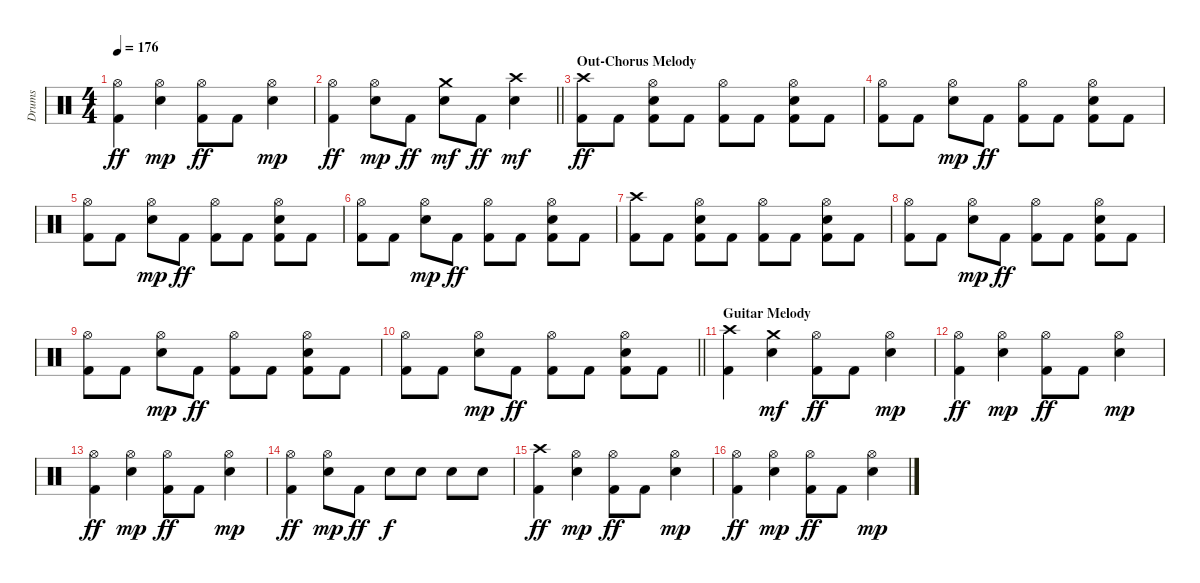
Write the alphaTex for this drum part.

\track ("Drums" "Drums") {instrument percussion}
\staff {score}
\articulation defaults
\ts (4 4)
\tempo 176
\clef neutral
\ks c
("Hi-Hat (open)" "Kick (hit) 2").4{dy ff} ("Hi-Hat (open)" "Electric Snare (hit)").4{dy mp} ("Hi-Hat (open)" "Kick (hit) 2").8{dy ff} "Kick (hit) 2".8 ("Hi-Hat (open)" "Electric Snare (hit)").4{dy mp} |
\barLineRight lightlight
("Hi-Hat (open)" "Kick (hit) 2").4{dy ff} ("Hi-Hat (open)" "Electric Snare (hit)").8{dy mp} "Kick (hit) 2".8{dy ff} ("Crash medium (hit)" "Electric Snare (hit)").8{dy mf} "Kick (hit) 2".8{dy ff} ("Crash high (hit)" "Electric Snare (hit)").4{dy mf} |
\section ("" "Out-Chorus Melody")
("Crash high (hit)" "Kick (hit) 2").8{dy ff} "Kick (hit) 2".8 ("Hi-Hat (open)" "Electric Snare (hit)" "Kick (hit) 2").8 "Kick (hit) 2".8 ("Hi-Hat (open)" "Kick (hit) 2").8 "Kick (hit) 2".8 ("Hi-Hat (open)" "Electric Snare (hit)" "Kick (hit) 2").8 "Kick (hit) 2".8 |
("Hi-Hat (open)" "Kick (hit) 2").8 "Kick (hit) 2".8 ("Hi-Hat (open)" "Electric Snare (hit)").8{dy mp} "Kick (hit) 2".8{dy ff} ("Hi-Hat (open)" "Kick (hit) 2").8 "Kick (hit) 2".8 ("Hi-Hat (open)" "Electric Snare (hit)" "Kick (hit) 2").8 "Kick (hit) 2".8 |
("Hi-Hat (open)" "Kick (hit) 2").8 "Kick (hit) 2".8 ("Hi-Hat (open)" "Electric Snare (hit)").8{dy mp} "Kick (hit) 2".8{dy ff} ("Hi-Hat (open)" "Kick (hit) 2").8 "Kick (hit) 2".8 ("Hi-Hat (open)" "Electric Snare (hit)" "Kick (hit) 2").8 "Kick (hit) 2".8 |
("Hi-Hat (open)" "Kick (hit) 2").8 "Kick (hit) 2".8 ("Hi-Hat (open)" "Electric Snare (hit)").8{dy mp} "Kick (hit) 2".8{dy ff} ("Hi-Hat (open)" "Kick (hit) 2").8 "Kick (hit) 2".8 ("Hi-Hat (open)" "Electric Snare (hit)" "Kick (hit) 2").8 "Kick (hit) 2".8 |
("Crash high (hit)" "Kick (hit) 2").8 "Kick (hit) 2".8 ("Hi-Hat (open)" "Electric Snare (hit)" "Kick (hit) 2").8 "Kick (hit) 2".8 ("Hi-Hat (open)" "Kick (hit) 2").8 "Kick (hit) 2".8 ("Hi-Hat (open)" "Electric Snare (hit)" "Kick (hit) 2").8 "Kick (hit) 2".8 |
("Hi-Hat (open)" "Kick (hit) 2").8 "Kick (hit) 2".8 ("Hi-Hat (open)" "Electric Snare (hit)").8{dy mp} "Kick (hit) 2".8{dy ff} ("Hi-Hat (open)" "Kick (hit) 2").8 "Kick (hit) 2".8 ("Hi-Hat (open)" "Electric Snare (hit)" "Kick (hit) 2").8 "Kick (hit) 2".8 |
("Hi-Hat (open)" "Kick (hit) 2").8 "Kick (hit) 2".8 ("Hi-Hat (open)" "Electric Snare (hit)").8{dy mp} "Kick (hit) 2".8{dy ff} ("Hi-Hat (open)" "Kick (hit) 2").8 "Kick (hit) 2".8 ("Hi-Hat (open)" "Electric Snare (hit)" "Kick (hit) 2").8 "Kick (hit) 2".8 |
\barLineRight lightlight
("Hi-Hat (open)" "Kick (hit) 2").8 "Kick (hit) 2".8 ("Hi-Hat (open)" "Electric Snare (hit)").8{dy mp} "Kick (hit) 2".8{dy ff} ("Hi-Hat (open)" "Kick (hit) 2").8 "Kick (hit) 2".8 ("Hi-Hat (open)" "Electric Snare (hit)" "Kick (hit) 2").8 "Kick (hit) 2".8 |
\section ("" "Guitar Melody")
("Crash high (hit)" "Kick (hit) 2").4 ("Crash medium (hit)" "Electric Snare (hit)").4{dy mf} ("Hi-Hat (open)" "Kick (hit) 2").8{dy ff} "Kick (hit) 2".8 ("Hi-Hat (open)" "Electric Snare (hit)").4{dy mp} |
("Hi-Hat (open)" "Kick (hit) 2").4{dy ff} ("Hi-Hat (open)" "Electric Snare (hit)").4{dy mp} ("Hi-Hat (open)" "Kick (hit) 2").8{dy ff} "Kick (hit) 2".8 ("Hi-Hat (open)" "Electric Snare (hit)").4{dy mp} |
("Hi-Hat (open)" "Kick (hit) 2").4{dy ff} ("Hi-Hat (open)" "Electric Snare (hit)").4{dy mp} ("Hi-Hat (open)" "Kick (hit) 2").8{dy ff} "Kick (hit) 2".8 ("Hi-Hat (open)" "Electric Snare (hit)").4{dy mp} |
("Hi-Hat (open)" "Kick (hit) 2").4{dy ff} ("Hi-Hat (open)" "Electric Snare (hit)").8{dy mp} "Kick (hit) 2".8{dy ff} "Electric Snare (hit)".8{dy f} "Electric Snare (hit)".8 "Electric Snare (hit)".8 "Electric Snare (hit)".8 |
("Crash high (hit)" "Kick (hit) 2").4{dy ff} ("Hi-Hat (open)" "Electric Snare (hit)").4{dy mp} ("Hi-Hat (open)" "Kick (hit) 2").8{dy ff} "Kick (hit) 2".8 ("Hi-Hat (open)" "Electric Snare (hit)").4{dy mp} |
("Hi-Hat (open)" "Kick (hit) 2").4{dy ff} ("Hi-Hat (open)" "Electric Snare (hit)").4{dy mp} ("Hi-Hat (open)" "Kick (hit) 2").8{dy ff} "Kick (hit) 2".8 ("Hi-Hat (open)" "Electric Snare (hit)").4{dy mp}
